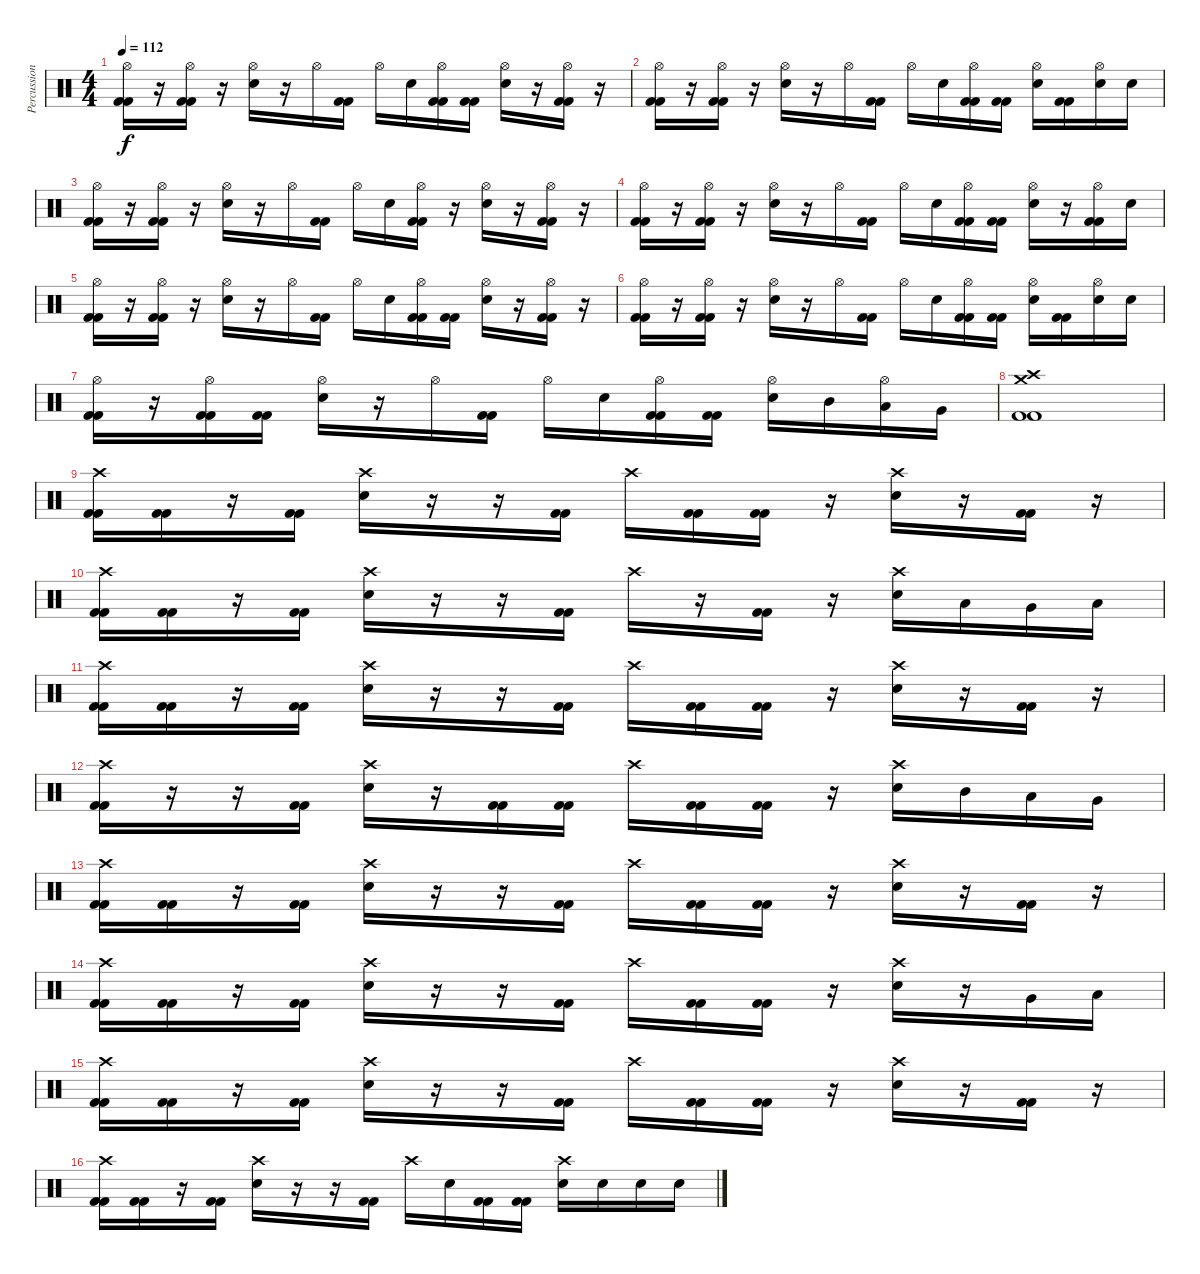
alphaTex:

\track ("Percussion" "Percussion") {instrument percussion}
\staff {score}
\articulation defaults
\ts (4 4)
\tempo 112
\clef neutral
\ks c
("Hi-Hat (open)" "Kick (hit) 2" "Kick (hit) 2").16{dy f} r.16 ("Hi-Hat (open)" "Kick (hit) 2" "Kick (hit) 2").16 r.16 ("Hi-Hat (open)" "Electric Snare (hit)").16 r.16 "Hi-Hat (open)".16 ("Kick (hit) 2" "Kick (hit) 2").16 "Hi-Hat (open)".16 "Electric Snare (hit)".16 ("Hi-Hat (open)" "Kick (hit) 2" "Kick (hit) 2").16 ("Kick (hit) 2" "Kick (hit) 2").16 ("Hi-Hat (open)" "Electric Snare (hit)").16 r.16 ("Hi-Hat (open)" "Kick (hit) 2" "Kick (hit) 2").16 r.16 |
("Hi-Hat (open)" "Kick (hit) 2" "Kick (hit) 2").16 r.16 ("Hi-Hat (open)" "Kick (hit) 2" "Kick (hit) 2").16 r.16 ("Hi-Hat (open)" "Electric Snare (hit)").16 r.16 "Hi-Hat (open)".16 ("Kick (hit) 2" "Kick (hit) 2").16 "Hi-Hat (open)".16 "Electric Snare (hit)".16 ("Hi-Hat (open)" "Kick (hit) 2" "Kick (hit) 2").16 ("Kick (hit) 2" "Kick (hit) 2").16 ("Hi-Hat (open)" "Electric Snare (hit)").16 ("Kick (hit) 2" "Kick (hit) 2").16 ("Hi-Hat (open)" "Electric Snare (hit)").16 "Electric Snare (hit)".16 |
("Hi-Hat (open)" "Kick (hit) 2" "Kick (hit) 2").16 r.16 ("Hi-Hat (open)" "Kick (hit) 2" "Kick (hit) 2").16 r.16 ("Hi-Hat (open)" "Electric Snare (hit)").16 r.16 "Hi-Hat (open)".16 ("Kick (hit) 2" "Kick (hit) 2").16 "Hi-Hat (open)".16 "Electric Snare (hit)".16 ("Hi-Hat (open)" "Kick (hit) 2" "Kick (hit) 2").16 r.16 ("Hi-Hat (open)" "Electric Snare (hit)").16 r.16 ("Hi-Hat (open)" "Kick (hit) 2" "Kick (hit) 2").16 r.16 |
("Hi-Hat (open)" "Kick (hit) 2" "Kick (hit) 2").16 r.16 ("Hi-Hat (open)" "Kick (hit) 2" "Kick (hit) 2").16 r.16 ("Hi-Hat (open)" "Electric Snare (hit)").16 r.16 "Hi-Hat (open)".16 ("Kick (hit) 2" "Kick (hit) 2").16 "Hi-Hat (open)".16 "Electric Snare (hit)".16 ("Hi-Hat (open)" "Kick (hit) 2" "Kick (hit) 2").16 ("Kick (hit) 2" "Kick (hit) 2").16 ("Hi-Hat (open)" "Electric Snare (hit)").16 r.16 ("Hi-Hat (open)" "Kick (hit) 2" "Kick (hit) 2").16 "Electric Snare (hit)".16 |
("Hi-Hat (open)" "Kick (hit) 2" "Kick (hit) 2").16 r.16 ("Hi-Hat (open)" "Kick (hit) 2" "Kick (hit) 2").16 r.16 ("Hi-Hat (open)" "Electric Snare (hit)").16 r.16 "Hi-Hat (open)".16 ("Kick (hit) 2" "Kick (hit) 2").16 "Hi-Hat (open)".16 "Electric Snare (hit)".16 ("Hi-Hat (open)" "Kick (hit) 2" "Kick (hit) 2").16 ("Kick (hit) 2" "Kick (hit) 2").16 ("Hi-Hat (open)" "Electric Snare (hit)").16 r.16 ("Hi-Hat (open)" "Kick (hit) 2" "Kick (hit) 2").16 r.16 |
("Hi-Hat (open)" "Kick (hit) 2" "Kick (hit) 2").16 r.16 ("Hi-Hat (open)" "Kick (hit) 2" "Kick (hit) 2").16 r.16 ("Hi-Hat (open)" "Electric Snare (hit)").16 r.16 "Hi-Hat (open)".16 ("Kick (hit) 2" "Kick (hit) 2").16 "Hi-Hat (open)".16 "Electric Snare (hit)".16 ("Hi-Hat (open)" "Kick (hit) 2" "Kick (hit) 2").16 ("Kick (hit) 2" "Kick (hit) 2").16 ("Hi-Hat (open)" "Electric Snare (hit)").16 ("Kick (hit) 2" "Kick (hit) 2").16 ("Hi-Hat (open)" "Electric Snare (hit)").16 "Electric Snare (hit)".16 |
("Hi-Hat (open)" "Kick (hit) 2" "Kick (hit) 2").16 r.16 ("Hi-Hat (open)" "Kick (hit) 2" "Kick (hit) 2").16 ("Kick (hit) 2" "Kick (hit) 2").16 ("Hi-Hat (open)" "Electric Snare (hit)").16 r.16 "Hi-Hat (open)".16 ("Kick (hit) 2" "Kick (hit) 2").16 "Hi-Hat (open)".16 "Electric Snare (hit)".16 ("Hi-Hat (open)" "Kick (hit) 2" "Kick (hit) 2").16 ("Kick (hit) 2" "Kick (hit) 2").16 ("Hi-Hat (open)" "Electric Snare (hit)").16 "Mid Tom (hit)".16 ("Hi-Hat (open)" "Low Tom (hit)").16 "Very Low Tom (hit)".16 |
("Crash medium (hit)" "Crash high (hit)" "Kick (hit) 2" "Kick (hit) 2").1 |
("Crash high (hit)" "Kick (hit) 2" "Kick (hit) 2").16 ("Kick (hit) 2" "Kick (hit) 2").16 r.16 ("Kick (hit) 2" "Kick (hit) 2").16 ("Crash high (hit)" "Electric Snare (hit)").16 r.16 r.16 ("Kick (hit) 2" "Kick (hit) 2").16 "Crash high (hit)".16 ("Kick (hit) 2" "Kick (hit) 2").16 ("Kick (hit) 2" "Kick (hit) 2").16 r.16 ("Crash high (hit)" "Electric Snare (hit)").16 r.16 ("Kick (hit) 2" "Kick (hit) 2").16 r.16 |
("Crash high (hit)" "Kick (hit) 2" "Kick (hit) 2").16 ("Kick (hit) 2" "Kick (hit) 2").16 r.16 ("Kick (hit) 2" "Kick (hit) 2").16 ("Crash high (hit)" "Electric Snare (hit)").16 r.16 r.16 ("Kick (hit) 2" "Kick (hit) 2").16 "Crash high (hit)".16 r.16 ("Kick (hit) 2" "Kick (hit) 2").16 r.16 ("Crash high (hit)" "Electric Snare (hit)").16 "Low Tom (hit)".16 "Very Low Tom (hit)".16 "Low Floor Tom (hit)".16 |
("Crash high (hit)" "Kick (hit) 2" "Kick (hit) 2").16 ("Kick (hit) 2" "Kick (hit) 2").16 r.16 ("Kick (hit) 2" "Kick (hit) 2").16 ("Crash high (hit)" "Electric Snare (hit)").16 r.16 r.16 ("Kick (hit) 2" "Kick (hit) 2").16 "Crash high (hit)".16 ("Kick (hit) 2" "Kick (hit) 2").16 ("Kick (hit) 2" "Kick (hit) 2").16 r.16 ("Crash high (hit)" "Electric Snare (hit)").16 r.16 ("Kick (hit) 2" "Kick (hit) 2").16 r.16 |
("Crash high (hit)" "Kick (hit) 2" "Kick (hit) 2").16 r.16 r.16 ("Kick (hit) 2" "Kick (hit) 2").16 ("Crash high (hit)" "Electric Snare (hit)").16 r.16 ("Kick (hit) 2" "Kick (hit) 2").16 ("Kick (hit) 2" "Kick (hit) 2").16 "Crash high (hit)".16 ("Kick (hit) 2" "Kick (hit) 2").16 ("Kick (hit) 2" "Kick (hit) 2").16 r.16 ("Crash high (hit)" "Electric Snare (hit)").16 "Mid Tom (hit)".16 "Low Tom (hit)".16 "Very Low Tom (hit)".16 |
("Crash high (hit)" "Kick (hit) 2" "Kick (hit) 2").16 ("Kick (hit) 2" "Kick (hit) 2").16 r.16 ("Kick (hit) 2" "Kick (hit) 2").16 ("Crash high (hit)" "Electric Snare (hit)").16 r.16 r.16 ("Kick (hit) 2" "Kick (hit) 2").16 "Crash high (hit)".16 ("Kick (hit) 2" "Kick (hit) 2").16 ("Kick (hit) 2" "Kick (hit) 2").16 r.16 ("Crash high (hit)" "Electric Snare (hit)").16 r.16 ("Kick (hit) 2" "Kick (hit) 2").16 r.16 |
("Crash high (hit)" "Kick (hit) 2" "Kick (hit) 2").16 ("Kick (hit) 2" "Kick (hit) 2").16 r.16 ("Kick (hit) 2" "Kick (hit) 2").16 ("Crash high (hit)" "Electric Snare (hit)").16 r.16 r.16 ("Kick (hit) 2" "Kick (hit) 2").16 "Crash high (hit)".16 ("Kick (hit) 2" "Kick (hit) 2").16 ("Kick (hit) 2" "Kick (hit) 2").16 r.16 ("Crash high (hit)" "Electric Snare (hit)").16 r.16 "Very Low Tom (hit)".16 "Low Floor Tom (hit)".16 |
("Crash high (hit)" "Kick (hit) 2" "Kick (hit) 2").16 ("Kick (hit) 2" "Kick (hit) 2").16 r.16 ("Kick (hit) 2" "Kick (hit) 2").16 ("Crash high (hit)" "Electric Snare (hit)").16 r.16 r.16 ("Kick (hit) 2" "Kick (hit) 2").16 "Crash high (hit)".16 ("Kick (hit) 2" "Kick (hit) 2").16 ("Kick (hit) 2" "Kick (hit) 2").16 r.16 ("Crash high (hit)" "Electric Snare (hit)").16 r.16 ("Kick (hit) 2" "Kick (hit) 2").16 r.16 |
("Crash high (hit)" "Kick (hit) 2" "Kick (hit) 2").16 ("Kick (hit) 2" "Kick (hit) 2").16 r.16 ("Kick (hit) 2" "Kick (hit) 2").16 ("Crash high (hit)" "Electric Snare (hit)").16 r.16 r.16 ("Kick (hit) 2" "Kick (hit) 2").16 "Crash high (hit)".16 "Electric Snare (hit)".16 ("Kick (hit) 2" "Kick (hit) 2").16 ("Kick (hit) 2" "Kick (hit) 2").16 ("Crash high (hit)" "Electric Snare (hit)").16 "Electric Snare (hit)".16 "Electric Snare (hit)".16 "Electric Snare (hit)".16
